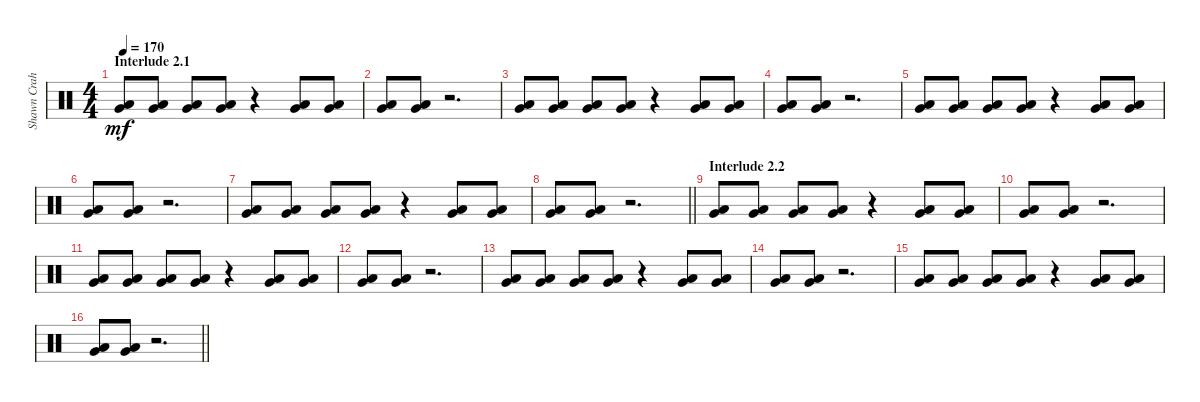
\track ("Shawn Crahan" "Shawn Crah") {instrument percussion}
\staff {score}
\articulation defaults
\ts (4 4)
\section ("" "Interlude 2.1")
\tempo 170
\clef neutral
\ks c
("Very Low Tom (hit)" "Low Floor Tom (hit)").8{dy mf} ("Very Low Tom (hit)" "Low Floor Tom (hit)").8 ("Very Low Tom (hit)" "Low Floor Tom (hit)").8 ("Very Low Tom (hit)" "Low Floor Tom (hit)").8 r.4 ("Very Low Tom (hit)" "Low Floor Tom (hit)").8 ("Very Low Tom (hit)" "Low Floor Tom (hit)").8 |
("Very Low Tom (hit)" "Low Floor Tom (hit)").8 ("Very Low Tom (hit)" "Low Floor Tom (hit)").8 r.2{d} |
("Very Low Tom (hit)" "Low Floor Tom (hit)").8 ("Very Low Tom (hit)" "Low Floor Tom (hit)").8 ("Very Low Tom (hit)" "Low Floor Tom (hit)").8 ("Very Low Tom (hit)" "Low Floor Tom (hit)").8 r.4 ("Very Low Tom (hit)" "Low Floor Tom (hit)").8 ("Very Low Tom (hit)" "Low Floor Tom (hit)").8 |
("Very Low Tom (hit)" "Low Floor Tom (hit)").8 ("Very Low Tom (hit)" "Low Floor Tom (hit)").8 r.2{d} |
("Very Low Tom (hit)" "Low Floor Tom (hit)").8 ("Very Low Tom (hit)" "Low Floor Tom (hit)").8 ("Very Low Tom (hit)" "Low Floor Tom (hit)").8 ("Very Low Tom (hit)" "Low Floor Tom (hit)").8 r.4 ("Very Low Tom (hit)" "Low Floor Tom (hit)").8 ("Very Low Tom (hit)" "Low Floor Tom (hit)").8 |
("Very Low Tom (hit)" "Low Floor Tom (hit)").8 ("Very Low Tom (hit)" "Low Floor Tom (hit)").8 r.2{d} |
("Very Low Tom (hit)" "Low Floor Tom (hit)").8 ("Very Low Tom (hit)" "Low Floor Tom (hit)").8 ("Very Low Tom (hit)" "Low Floor Tom (hit)").8 ("Very Low Tom (hit)" "Low Floor Tom (hit)").8 r.4 ("Very Low Tom (hit)" "Low Floor Tom (hit)").8 ("Very Low Tom (hit)" "Low Floor Tom (hit)").8 |
\barLineRight lightlight
("Very Low Tom (hit)" "Low Floor Tom (hit)").8 ("Very Low Tom (hit)" "Low Floor Tom (hit)").8 r.2{d} |
\section ("" "Interlude 2.2")
("Very Low Tom (hit)" "Low Floor Tom (hit)").8 ("Very Low Tom (hit)" "Low Floor Tom (hit)").8 ("Very Low Tom (hit)" "Low Floor Tom (hit)").8 ("Very Low Tom (hit)" "Low Floor Tom (hit)").8 r.4 ("Very Low Tom (hit)" "Low Floor Tom (hit)").8 ("Very Low Tom (hit)" "Low Floor Tom (hit)").8 |
("Very Low Tom (hit)" "Low Floor Tom (hit)").8 ("Very Low Tom (hit)" "Low Floor Tom (hit)").8 r.2{d} |
("Very Low Tom (hit)" "Low Floor Tom (hit)").8 ("Very Low Tom (hit)" "Low Floor Tom (hit)").8 ("Very Low Tom (hit)" "Low Floor Tom (hit)").8 ("Very Low Tom (hit)" "Low Floor Tom (hit)").8 r.4 ("Very Low Tom (hit)" "Low Floor Tom (hit)").8 ("Very Low Tom (hit)" "Low Floor Tom (hit)").8 |
("Very Low Tom (hit)" "Low Floor Tom (hit)").8 ("Very Low Tom (hit)" "Low Floor Tom (hit)").8 r.2{d} |
("Very Low Tom (hit)" "Low Floor Tom (hit)").8 ("Very Low Tom (hit)" "Low Floor Tom (hit)").8 ("Very Low Tom (hit)" "Low Floor Tom (hit)").8 ("Very Low Tom (hit)" "Low Floor Tom (hit)").8 r.4 ("Very Low Tom (hit)" "Low Floor Tom (hit)").8 ("Very Low Tom (hit)" "Low Floor Tom (hit)").8 |
("Very Low Tom (hit)" "Low Floor Tom (hit)").8 ("Very Low Tom (hit)" "Low Floor Tom (hit)").8 r.2{d} |
("Very Low Tom (hit)" "Low Floor Tom (hit)").8 ("Very Low Tom (hit)" "Low Floor Tom (hit)").8 ("Very Low Tom (hit)" "Low Floor Tom (hit)").8 ("Very Low Tom (hit)" "Low Floor Tom (hit)").8 r.4 ("Very Low Tom (hit)" "Low Floor Tom (hit)").8 ("Very Low Tom (hit)" "Low Floor Tom (hit)").8 |
\barLineRight lightlight
("Very Low Tom (hit)" "Low Floor Tom (hit)").8 ("Very Low Tom (hit)" "Low Floor Tom (hit)").8 r.2{d}
